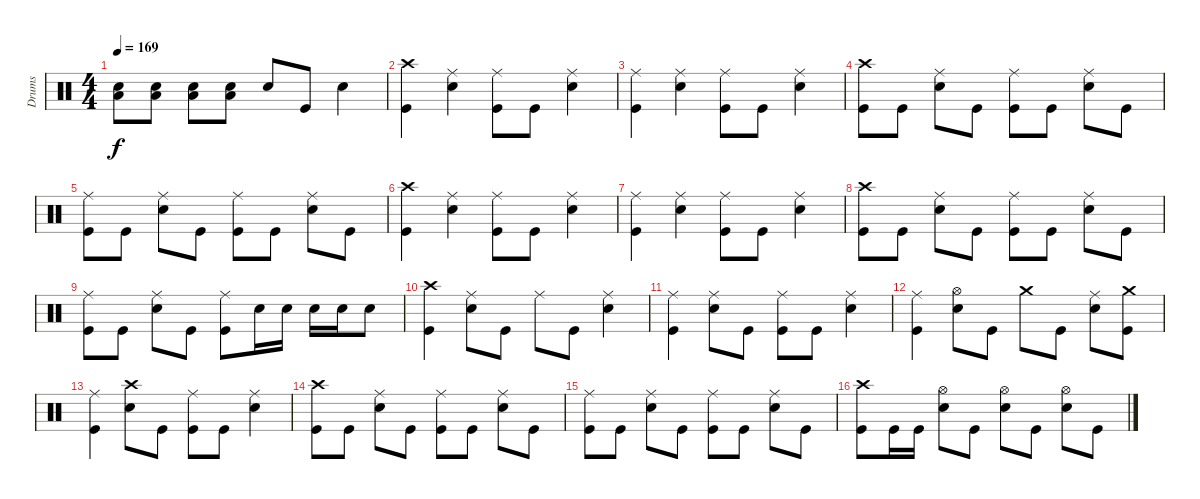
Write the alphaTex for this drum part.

\track ("Drums" "Drums") {instrument percussion}
\staff {score}
\articulation defaults
\ts (4 4)
\tempo 169
\clef neutral
\ks c
("Low Floor Tom (hit)" "Snare (hit) 2").8{dy f} ("Low Floor Tom (hit)" "Snare (hit) 2").8 ("Low Floor Tom (hit)" "Snare (hit) 2").8 ("Low Floor Tom (hit)" "Snare (hit) 2").8 "Snare (hit) 2".8 "Kick (hit)".8 "Snare (hit) 2".4 |
("Crash high (hit)" "Kick (hit)").4 ("Ride (middle)" "Snare (hit) 2").4 ("Ride (middle)" "Kick (hit)").8 "Kick (hit)".8 ("Ride (middle)" "Snare (hit) 2").4 |
("Ride (middle)" "Kick (hit)").4 ("Ride (middle)" "Snare (hit) 2").4 ("Ride (middle)" "Kick (hit)").8 "Kick (hit)".8 ("Ride (middle)" "Snare (hit) 2").4 |
("Crash high (hit)" "Kick (hit)").8 "Kick (hit)".8 ("Ride (middle)" "Snare (hit) 2").8 "Kick (hit)".8 ("Ride (middle)" "Kick (hit)").8 "Kick (hit)".8 ("Ride (middle)" "Snare (hit) 2").8 "Kick (hit)".8 |
("Ride (middle)" "Kick (hit)").8 "Kick (hit)".8 ("Ride (middle)" "Snare (hit) 2").8 "Kick (hit)".8 ("Ride (middle)" "Kick (hit)").8 "Kick (hit)".8 ("Ride (middle)" "Snare (hit) 2").8 "Kick (hit)".8 |
("Crash high (hit)" "Kick (hit)").4 ("Ride (middle)" "Snare (hit) 2").4 ("Ride (middle)" "Kick (hit)").8 "Kick (hit)".8 ("Ride (middle)" "Snare (hit) 2").4 |
("Ride (middle)" "Kick (hit)").4 ("Ride (middle)" "Snare (hit) 2").4 ("Ride (middle)" "Kick (hit)").8 "Kick (hit)".8 ("Ride (middle)" "Snare (hit) 2").4 |
("Crash high (hit)" "Kick (hit)").8 "Kick (hit)".8 ("Ride (middle)" "Snare (hit) 2").8 "Kick (hit)".8 ("Ride (middle)" "Kick (hit)").8 "Kick (hit)".8 ("Ride (middle)" "Snare (hit) 2").8 "Kick (hit)".8 |
("Ride (middle)" "Kick (hit)").8 "Kick (hit)".8 ("Ride (middle)" "Snare (hit) 2").8 "Kick (hit)".8 ("Ride (middle)" "Kick (hit)").8 "Snare (hit) 2".16 "Snare (hit) 2".16 "Snare (hit) 2".16 "Snare (hit) 2".16 "Snare (hit) 2".8 |
("Crash high (hit)" "Kick (hit)").4 ("Ride (middle)" "Snare (hit) 2").8 "Kick (hit)".8 "Ride (middle)".8 "Kick (hit)".8 ("Ride (middle)" "Snare (hit) 2").4 |
("Ride (middle)" "Kick (hit)").4 ("Ride (middle)" "Snare (hit) 2").8 "Kick (hit)".8 ("Ride (middle)" "Kick (hit)").8 "Kick (hit)".8 ("Ride (middle)" "Snare (hit) 2").4 |
("Ride (middle)" "Kick (hit)").4 ("Hi-Hat (open)" "Snare (hit) 2").8 "Kick (hit)".8 "Crash medium (hit)".8 "Kick (hit)".8 ("Ride (middle)" "Snare (hit) 2").8 ("Crash medium (hit)" "Kick (hit)").8 |
("Ride (middle)" "Kick (hit)").4 ("Crash high (hit)" "Snare (hit) 2").8 "Kick (hit)".8 ("Ride (middle)" "Kick (hit)").8 "Kick (hit)".8 ("Ride (middle)" "Snare (hit) 2").4 |
("Crash high (hit)" "Kick (hit)").8 "Kick (hit)".8 ("Ride (middle)" "Snare (hit) 2").8 "Kick (hit)".8 ("Ride (middle)" "Kick (hit)").8 "Kick (hit)".8 ("Ride (middle)" "Snare (hit) 2").8 "Kick (hit)".8 |
("Ride (middle)" "Kick (hit)").8 "Kick (hit)".8 ("Ride (middle)" "Snare (hit) 2").8 "Kick (hit)".8 ("Ride (middle)" "Kick (hit)").8 "Kick (hit)".8 ("Ride (middle)" "Snare (hit) 2").8 "Kick (hit)".8 |
("Crash high (hit)" "Kick (hit)").8 "Kick (hit)".16 "Kick (hit)".16 ("Hi-Hat (open)" "Snare (hit) 2").8 "Kick (hit)".8 ("Hi-Hat (open)" "Snare (hit) 2").8 "Kick (hit)".8 ("Hi-Hat (open)" "Snare (hit) 2").8 "Kick (hit)".8
